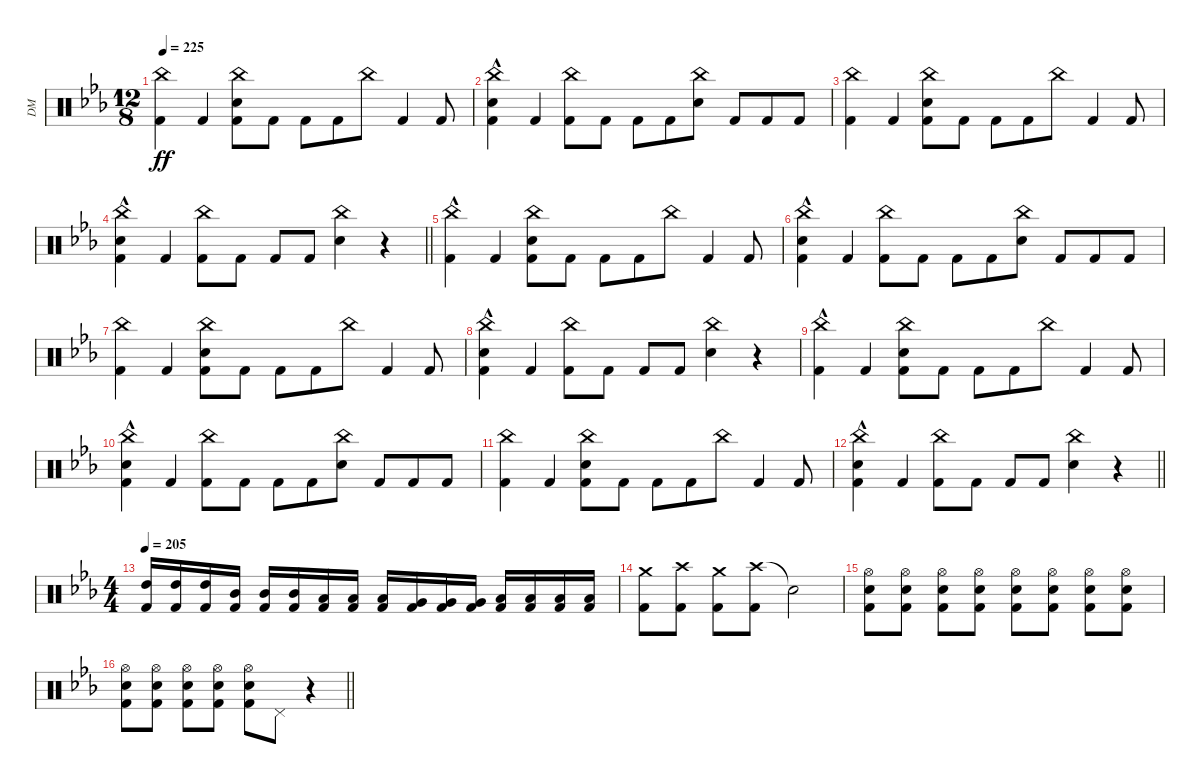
\track ("DM" "DM") {instrument percussion}
\staff {score}
\articulation defaults
\ts (12 8)
\tempo 225
\clef neutral
\ks cminor
("China (hit)" "Kick (hit) 2").4{dy ff} "Kick (hit) 2".4 ("China (hit)" "Electric Snare (hit)" "Kick (hit) 2").8 "Kick (hit) 2".8 "Kick (hit) 2".8 "Kick (hit) 2".8 "China (hit)".8 "Kick (hit) 2".4 "Kick (hit) 2".8 |
("China (hit)" "Electric Snare (hit)" "Kick (hit) 2"{hac}).4 "Kick (hit) 2".4 ("China (hit)" "Kick (hit) 2").8 "Kick (hit) 2".8 "Kick (hit) 2".8 "Kick (hit) 2".8 ("China (hit)" "Electric Snare (hit)").8 "Kick (hit) 2".8 "Kick (hit) 2".8 "Kick (hit) 2".8 |
("China (hit)" "Kick (hit) 2").4 "Kick (hit) 2".4 ("China (hit)" "Electric Snare (hit)" "Kick (hit) 2").8 "Kick (hit) 2".8 "Kick (hit) 2".8 "Kick (hit) 2".8 "China (hit)".8 "Kick (hit) 2".4 "Kick (hit) 2".8 |
\barLineRight lightlight
("China (hit)" "Electric Snare (hit)" "Kick (hit) 2"{hac}).4 "Kick (hit) 2".4 ("China (hit)" "Kick (hit) 2").8 "Kick (hit) 2".8 "Kick (hit) 2".8 "Kick (hit) 2".8 ("China (hit)" "Electric Snare (hit)").4 r.4 |
\section ("" "")
("China (hit)" "Kick (hit) 2"{hac}).4 "Kick (hit) 2".4 ("China (hit)" "Electric Snare (hit)" "Kick (hit) 2").8 "Kick (hit) 2".8 "Kick (hit) 2".8 "Kick (hit) 2".8 "China (hit)".8 "Kick (hit) 2".4 "Kick (hit) 2".8 |
("China (hit)" "Electric Snare (hit)" "Kick (hit) 2"{hac}).4 "Kick (hit) 2".4 ("China (hit)" "Kick (hit) 2").8 "Kick (hit) 2".8 "Kick (hit) 2".8 "Kick (hit) 2".8 ("China (hit)" "Electric Snare (hit)").8 "Kick (hit) 2".8 "Kick (hit) 2".8 "Kick (hit) 2".8 |
("China (hit)" "Kick (hit) 2").4 "Kick (hit) 2".4 ("China (hit)" "Electric Snare (hit)" "Kick (hit) 2").8 "Kick (hit) 2".8 "Kick (hit) 2".8 "Kick (hit) 2".8 "China (hit)".8 "Kick (hit) 2".4 "Kick (hit) 2".8 |
("China (hit)" "Electric Snare (hit)" "Kick (hit) 2"{hac}).4 "Kick (hit) 2".4 ("China (hit)" "Kick (hit) 2").8 "Kick (hit) 2".8 "Kick (hit) 2".8 "Kick (hit) 2".8 ("China (hit)" "Electric Snare (hit)").4 r.4 |
("China (hit)" "Kick (hit) 2"{hac}).4 "Kick (hit) 2".4 ("China (hit)" "Electric Snare (hit)" "Kick (hit) 2").8 "Kick (hit) 2".8 "Kick (hit) 2".8 "Kick (hit) 2".8 "China (hit)".8 "Kick (hit) 2".4 "Kick (hit) 2".8 |
("China (hit)" "Electric Snare (hit)" "Kick (hit) 2"{hac}).4 "Kick (hit) 2".4 ("China (hit)" "Kick (hit) 2").8 "Kick (hit) 2".8 "Kick (hit) 2".8 "Kick (hit) 2".8 ("China (hit)" "Electric Snare (hit)").8 "Kick (hit) 2".8 "Kick (hit) 2".8 "Kick (hit) 2".8 |
("China (hit)" "Kick (hit) 2").4 "Kick (hit) 2".4 ("China (hit)" "Electric Snare (hit)" "Kick (hit) 2").8 "Kick (hit) 2".8 "Kick (hit) 2".8 "Kick (hit) 2".8 "China (hit)".8 "Kick (hit) 2".4 "Kick (hit) 2".8 |
\barLineRight lightlight
("China (hit)" "Electric Snare (hit)" "Kick (hit) 2"{hac}).4 "Kick (hit) 2".4 ("China (hit)" "Kick (hit) 2").8 "Kick (hit) 2".8 "Kick (hit) 2".8 "Kick (hit) 2".8 ("China (hit)" "Electric Snare (hit)").4 r.4 |
\ts (4 4)
\section ("" "")
\tempo 205
("High Tom (hit)" "Kick (hit) 2").16 ("High Tom (hit)" "Kick (hit) 2").16 ("High Tom (hit)" "Kick (hit) 2").16 ("Mid Tom (hit)" "Kick (hit) 2").16 ("Mid Tom (hit)" "Kick (hit) 2").16 ("Mid Tom (hit)" "Kick (hit) 2").16 ("Low Tom (hit)" "Kick (hit) 2").16 ("Low Tom (hit)" "Kick (hit) 2").16 ("Low Tom (hit)" "Kick (hit) 2").16 ("Very Low Tom (hit)" "Kick (hit) 2").16 ("Very Low Tom (hit)" "Kick (hit) 2").16 ("Very Low Tom (hit)" "Kick (hit) 2").16 ("Low Floor Tom (hit)" "Kick (hit) 2").16 ("Low Floor Tom (hit)" "Kick (hit) 2").16 ("Low Floor Tom (hit)" "Kick (hit) 2").16 ("Low Floor Tom (hit)" "Kick (hit) 2").16 |
("Crash medium (hit)" "Kick (hit) 2").8 ("Crash high (hit)" "Kick (hit) 2").8 ("Crash medium (hit)" "Kick (hit) 2").8 ("Crash high (hit)" "Kick (hit) 2").8 "Snare (hit)"{t}.2 |
("Hi-Hat (open)" "Electric Snare (hit)" "Kick (hit) 2").8 ("Hi-Hat (open)" "Electric Snare (hit)" "Kick (hit) 2").8 ("Hi-Hat (open)" "Electric Snare (hit)" "Kick (hit) 2").8 ("Hi-Hat (open)" "Electric Snare (hit)" "Kick (hit) 2").8 ("Hi-Hat (open)" "Electric Snare (hit)" "Kick (hit) 2").8 ("Hi-Hat (open)" "Electric Snare (hit)" "Kick (hit) 2").8 ("Hi-Hat (open)" "Electric Snare (hit)" "Kick (hit) 2").8 ("Hi-Hat (open)" "Electric Snare (hit)" "Kick (hit) 2").8 |
\barLineRight lightlight
("Hi-Hat (open)" "Electric Snare (hit)" "Kick (hit) 2").8 ("Hi-Hat (open)" "Electric Snare (hit)" "Kick (hit) 2").8 ("Hi-Hat (open)" "Electric Snare (hit)" "Kick (hit) 2").8 ("Hi-Hat (open)" "Electric Snare (hit)" "Kick (hit) 2").8 ("Hi-Hat (open)" "Electric Snare (hit)" "Kick (hit) 2").8 "Pedal Hi-Hat (hit)".8 r.4
